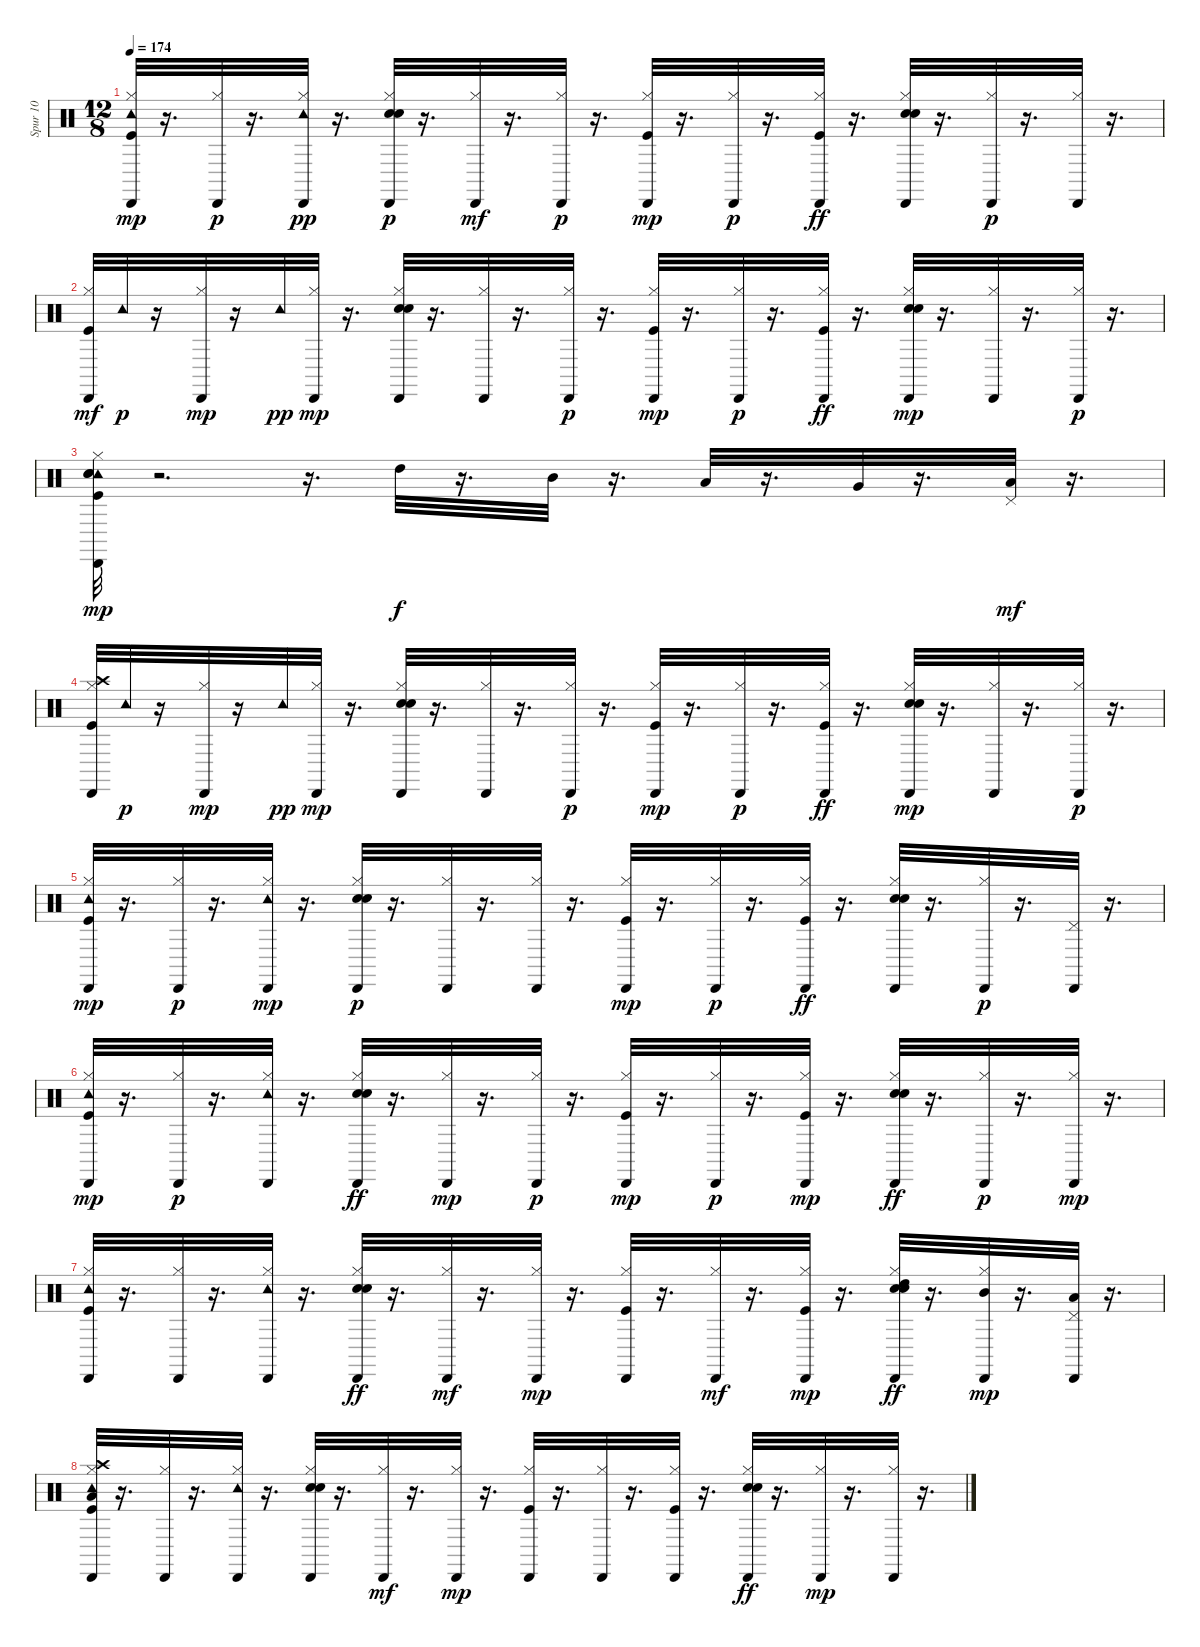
\track ("Spur 10" "Spur 10") {instrument percussion}
\staff {score}
\articulation defaults
\ts (12 8)
\tempo 174
\clef neutral
\ks c
("Tambourine (hit)" "Hi-Hat (closed)" "Kick (hit)" "Cabasa (hit)").32{dy mp} r.16{d} ("Hi-Hat (closed)" "Cabasa (hit)").32{dy p} r.16{d} ("Hi-Hat (closed)" "Cabasa (hit)" "Tambourine (hit)").32{dy pp} r.16{d} ("Hi-Hat (closed)" "Electric Snare (hit)" "Hand Clap (hit)" "Cabasa (hit)").32{dy p} r.16{d} ("Cabasa (hit)" "Hi-Hat (closed)").32{dy mf} r.16{d} ("Hi-Hat (closed)" "Cabasa (hit)").32{dy p} r.16{d} ("Kick (hit)" "Cabasa (hit)" "Hi-Hat (closed)").32{dy mp} r.16{d} ("Hi-Hat (closed)" "Cabasa (hit)").32{dy p} r.16{d} ("Hi-Hat (closed)" "Cabasa (hit)" "Kick (hit)").32{dy ff} r.16{d} ("Hi-Hat (closed)" "Cabasa (hit)" "Hand Clap (hit)" "Electric Snare (hit)").32 r.16{d} ("Hi-Hat (closed)" "Cabasa (hit)").32{dy p} r.16{d} ("Hi-Hat (closed)" "Cabasa (hit)").32 r.16{d} |
("Kick (hit)" "Cabasa (hit)" "Hi-Hat (closed)").32{dy mf} "Tambourine (hit)".32{dy p} r.16 ("Cabasa (hit)" "Hi-Hat (closed)").32{dy mp} r.16 "Tambourine (hit)".32{dy pp} ("Cabasa (hit)" "Hi-Hat (closed)").32{dy mp} r.16{d} ("Hand Clap (hit)" "Cabasa (hit)" "Electric Snare (hit)" "Hi-Hat (closed)").32 r.16{d} ("Cabasa (hit)" "Hi-Hat (closed)").32 r.16{d} ("Cabasa (hit)" "Hi-Hat (closed)").32{dy p} r.16{d} ("Hi-Hat (closed)" "Kick (hit)" "Cabasa (hit)").32{dy mp} r.16{d} ("Hi-Hat (closed)" "Cabasa (hit)").32{dy p} r.16{d} ("Hi-Hat (closed)" "Cabasa (hit)" "Kick (hit)").32{dy ff} r.16{d} ("Hand Clap (hit)" "Hi-Hat (closed)" "Electric Snare (hit)" "Cabasa (hit)").32{dy mp} r.16{d} ("Hi-Hat (closed)" "Cabasa (hit)").32 r.16{d} ("Hi-Hat (closed)" "Cabasa (hit)").32{dy p} r.16{d} |
("Tambourine (hit)" "Hi-Hat (closed)" "Kick (hit)" "Electric Snare (hit)" "Hand Clap (hit)" "Cabasa (hit)").32{dy mp} r.2{d} r.16{d} "High Tom (hit)".32{dy f} r.16{d} "Mid Tom (hit)".32 r.16{d} "Low Tom (hit)".32 r.16{d} "Very Low Tom (hit)".32 r.16{d} ("Pedal Hi-Hat (hit)" "Low Floor Tom (hit)").32{dy mf} r.16{d} |
("Kick (hit)" "Crash high (hit)" "Cabasa (hit)" "Hi-Hat (closed)").32 "Tambourine (hit)".32{dy p} r.16 ("Cabasa (hit)" "Hi-Hat (closed)").32{dy mp} r.16 "Tambourine (hit)".32{dy pp} ("Cabasa (hit)" "Hi-Hat (closed)").32{dy mp} r.16{d} ("Hand Clap (hit)" "Cabasa (hit)" "Electric Snare (hit)" "Hi-Hat (closed)").32 r.16{d} ("Cabasa (hit)" "Hi-Hat (closed)").32 r.16{d} ("Cabasa (hit)" "Hi-Hat (closed)").32{dy p} r.16{d} ("Hi-Hat (closed)" "Kick (hit)" "Cabasa (hit)").32{dy mp} r.16{d} ("Hi-Hat (closed)" "Cabasa (hit)").32{dy p} r.16{d} ("Hi-Hat (closed)" "Cabasa (hit)" "Kick (hit)").32{dy ff} r.16{d} ("Hand Clap (hit)" "Hi-Hat (closed)" "Electric Snare (hit)" "Cabasa (hit)").32{dy mp} r.16{d} ("Hi-Hat (closed)" "Cabasa (hit)").32 r.16{d} ("Hi-Hat (closed)" "Cabasa (hit)").32{dy p} r.16{d} |
("Tambourine (hit)" "Hi-Hat (closed)" "Kick (hit)" "Cabasa (hit)").32{dy mp} r.16{d} ("Hi-Hat (closed)" "Cabasa (hit)").32{dy p} r.16{d} ("Tambourine (hit)" "Hi-Hat (closed)" "Cabasa (hit)").32{dy mp} r.16{d} ("Hi-Hat (closed)" "Electric Snare (hit)" "Hand Clap (hit)" "Cabasa (hit)").32{dy p} r.16{d} ("Hi-Hat (closed)" "Cabasa (hit)").32 r.16{d} ("Hi-Hat (closed)" "Cabasa (hit)").32 r.16{d} ("Hi-Hat (closed)" "Kick (hit)" "Cabasa (hit)").32{dy mp} r.16{d} ("Hi-Hat (closed)" "Cabasa (hit)").32{dy p} r.16{d} ("Hi-Hat (closed)" "Cabasa (hit)" "Kick (hit)").32{dy ff} r.16{d} ("Hi-Hat (closed)" "Cabasa (hit)" "Electric Snare (hit)" "Hand Clap (hit)").32 r.16{d} ("Hi-Hat (closed)" "Cabasa (hit)").32{dy p} r.16{d} ("Pedal Hi-Hat (hit)" "Cabasa (hit)").32 r.16{d} |
("Tambourine (hit)" "Hi-Hat (closed)" "Kick (hit)" "Cabasa (hit)").32{dy mp} r.16{d} ("Hi-Hat (closed)" "Cabasa (hit)").32{dy p} r.16{d} ("Tambourine (hit)" "Hi-Hat (closed)" "Cabasa (hit)").32 r.16{d} ("Hi-Hat (closed)" "Hand Clap (hit)" "Cabasa (hit)" "Electric Snare (hit)").32{dy ff} r.16{d} ("Hi-Hat (closed)" "Cabasa (hit)").32{dy mp} r.16{d} ("Hi-Hat (closed)" "Cabasa (hit)").32{dy p} r.16{d} ("Hi-Hat (closed)" "Kick (hit)" "Cabasa (hit)").32{dy mp} r.16{d} ("Hi-Hat (closed)" "Cabasa (hit)").32{dy p} r.16{d} ("Hi-Hat (closed)" "Kick (hit)" "Cabasa (hit)").32{dy mp} r.16{d} ("Hi-Hat (closed)" "Hand Clap (hit)" "Cabasa (hit)" "Electric Snare (hit)").32{dy ff} r.16{d} ("Hi-Hat (closed)" "Cabasa (hit)").32{dy p} r.16{d} ("Hi-Hat (closed)" "Cabasa (hit)").32{dy mp} r.16{d} |
("Tambourine (hit)" "Hi-Hat (closed)" "Kick (hit)" "Cabasa (hit)").32 r.16{d} ("Cabasa (hit)" "Hi-Hat (closed)").32 r.16{d} ("Tambourine (hit)" "Cabasa (hit)" "Hi-Hat (closed)").32 r.16{d} ("Cabasa (hit)" "Hi-Hat (closed)" "Electric Snare (hit)" "Hand Clap (hit)").32{dy ff} r.16{d} ("Cabasa (hit)" "Hi-Hat (closed)").32{dy mf} r.16{d} ("Hi-Hat (closed)" "Cabasa (hit)").32{dy mp} r.16{d} ("Cabasa (hit)" "Hi-Hat (closed)" "Kick (hit)").32 r.16{d} ("Cabasa (hit)" "Hi-Hat (closed)").32{dy mf} r.16{d} ("Cabasa (hit)" "Hi-Hat (closed)" "Kick (hit)").32{dy mp} r.16{d} ("Hi-Hat (closed)" "Hand Clap (hit)" "Cabasa (hit)" "Electric Snare (hit)" "High Tom (hit)").32{dy ff} r.16{d} ("Hi-Hat (closed)" "Cabasa (hit)" "Mid Tom (hit)").32{dy mp} r.16{d} ("Low Tom (hit)" "Pedal Hi-Hat (hit)" "Cabasa (hit)").32 r.16{d} |
("Tambourine (hit)" "Hi-Hat (closed)" "Kick (hit)" "Crash high (hit)" "Cabasa (hit)" "Low Floor Tom (hit)").32 r.16{d} ("Cabasa (hit)" "Hi-Hat (closed)").32 r.16{d} ("Tambourine (hit)" "Hi-Hat (closed)" "Cabasa (hit)").32 r.16{d} ("Electric Snare (hit)" "Hand Clap (hit)" "Cabasa (hit)" "Hi-Hat (closed)").32 r.16{d} ("Cabasa (hit)" "Hi-Hat (closed)").32{dy mf} r.16{d} ("Hi-Hat (closed)" "Cabasa (hit)").32{dy mp} r.16{d} ("Kick (hit)" "Hi-Hat (closed)" "Cabasa (hit)").32 r.16{d} ("Cabasa (hit)" "Hi-Hat (closed)").32 r.16{d} ("Kick (hit)" "Hi-Hat (closed)" "Cabasa (hit)").32 r.16{d} ("Hand Clap (hit)" "Cabasa (hit)" "Hi-Hat (closed)" "Electric Snare (hit)").32{dy ff} r.16{d} ("Hi-Hat (closed)" "Cabasa (hit)").32{dy mp} r.16{d} ("Hi-Hat (closed)" "Cabasa (hit)").32 r.16{d}
